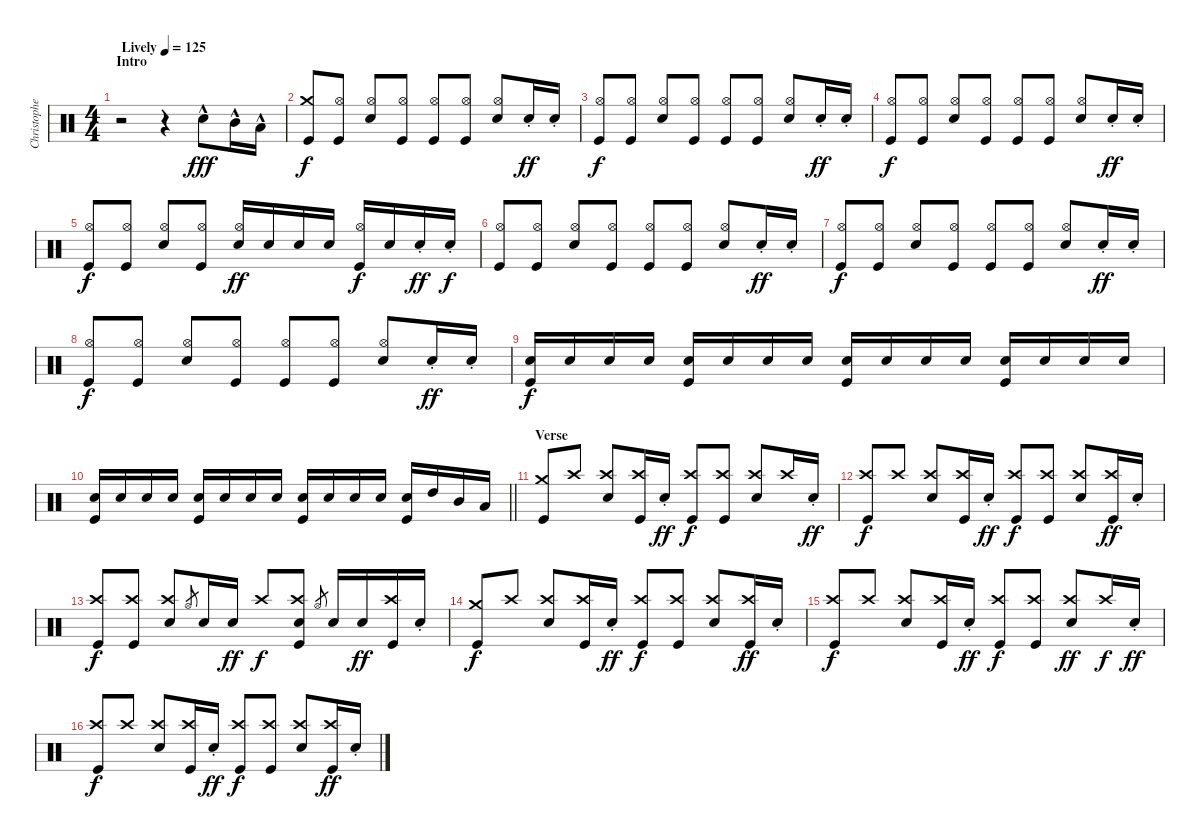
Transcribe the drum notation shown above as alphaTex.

\track ("Christopher - Drums" "Christophe") {instrument percussion}
\staff {score}
\articulation defaults
\ts (4 4)
\section ("" "Intro")
\tempo (125 "Lively")
\clef neutral
\ks c
r.2{dy fff beam Up} r.4 "Electric Snare (hit)"{hac}.8{beam Down} "Mid Tom (hit)"{hac}.16{beam Down} "Low Floor Tom (hit)"{hac}.16{beam Down} |
("Crash medium (hit)" "Kick (hit)").8{dy f beam Up} ("Hi-Hat (open)" "Kick (hit)").8{beam Up} ("Hi-Hat (open)" "Electric Snare (hit)").8{beam Up} ("Hi-Hat (open)" "Kick (hit)").8{beam Up} ("Hi-Hat (open)" "Kick (hit)").8{beam Up} ("Hi-Hat (open)" "Kick (hit)").8{beam Up} ("Hi-Hat (open)" "Electric Snare (hit)").8{beam Up} "Electric Snare (hit)"{st}.16{dy ff beam Up} "Electric Snare (hit)"{st}.16{beam Up} |
("Hi-Hat (open)" "Kick (hit)").8{dy f beam Up} ("Hi-Hat (open)" "Kick (hit)").8{beam Up} ("Hi-Hat (open)" "Electric Snare (hit)").8{beam Up} ("Hi-Hat (open)" "Kick (hit)").8{beam Up} ("Hi-Hat (open)" "Kick (hit)").8{beam Up} ("Hi-Hat (open)" "Kick (hit)").8{beam Up} ("Hi-Hat (open)" "Electric Snare (hit)").8{beam Up} "Electric Snare (hit)"{st}.16{dy ff beam Up} "Electric Snare (hit)"{st}.16{beam Up} |
("Hi-Hat (open)" "Kick (hit)").8{dy f beam Up} ("Hi-Hat (open)" "Kick (hit)").8{beam Up} ("Hi-Hat (open)" "Electric Snare (hit)").8{beam Up} ("Hi-Hat (open)" "Kick (hit)").8{beam Up} ("Hi-Hat (open)" "Kick (hit)").8{beam Up} ("Hi-Hat (open)" "Kick (hit)").8{beam Up} ("Hi-Hat (open)" "Electric Snare (hit)").8{beam Up} "Electric Snare (hit)"{st}.16{dy ff beam Up} "Electric Snare (hit)"{st}.16{beam Up} |
("Hi-Hat (open)" "Kick (hit)").8{dy f beam Up} ("Hi-Hat (open)" "Kick (hit)").8{beam Up} ("Hi-Hat (open)" "Electric Snare (hit)").8{beam Up} ("Hi-Hat (open)" "Kick (hit)").8{beam Up} ("Hi-Hat (open)" "Electric Snare (hit)").16{dy ff beam Up} "Electric Snare (hit)".16{beam Up} "Electric Snare (hit)".16{beam Up} "Electric Snare (hit)".16{beam Up} ("Hi-Hat (open)" "Kick (hit)").16{dy f beam Up} "Electric Snare (hit)".16{beam Up} "Electric Snare (hit)"{st}.16{dy ff beam Up} "Electric Snare (hit)"{st}.16{dy f} |
("Hi-Hat (open)" "Kick (hit)").8{beam Up} ("Hi-Hat (open)" "Kick (hit)").8{beam Up} ("Hi-Hat (open)" "Electric Snare (hit)").8{beam Up} ("Hi-Hat (open)" "Kick (hit)").8{beam Up} ("Hi-Hat (open)" "Kick (hit)").8{beam Up} ("Hi-Hat (open)" "Kick (hit)").8{beam Up} ("Hi-Hat (open)" "Electric Snare (hit)").8{beam Up} "Electric Snare (hit)"{st}.16{dy ff beam Up} "Electric Snare (hit)"{st}.16{beam Up} |
("Hi-Hat (open)" "Kick (hit)").8{dy f beam Up} ("Hi-Hat (open)" "Kick (hit)").8{beam Up} ("Hi-Hat (open)" "Electric Snare (hit)").8{beam Up} ("Hi-Hat (open)" "Kick (hit)").8{beam Up} ("Hi-Hat (open)" "Kick (hit)").8{beam Up} ("Hi-Hat (open)" "Kick (hit)").8{beam Up} ("Hi-Hat (open)" "Electric Snare (hit)").8{beam Up} "Electric Snare (hit)"{st}.16{dy ff beam Up} "Electric Snare (hit)"{st}.16{beam Up} |
("Hi-Hat (open)" "Kick (hit)").8{dy f beam Up} ("Hi-Hat (open)" "Kick (hit)").8{beam Up} ("Hi-Hat (open)" "Electric Snare (hit)").8{beam Up} ("Hi-Hat (open)" "Kick (hit)").8{beam Up} ("Hi-Hat (open)" "Kick (hit)").8{beam Up} ("Hi-Hat (open)" "Kick (hit)").8{beam Up} ("Hi-Hat (open)" "Electric Snare (hit)").8{beam Up} "Electric Snare (hit)"{st}.16{dy ff beam Up} "Electric Snare (hit)"{st}.16{beam Up} |
("Electric Snare (hit)" "Kick (hit)").16{dy f beam Up} "Electric Snare (hit)".16{beam Up} "Electric Snare (hit)".16{beam Up} "Electric Snare (hit)".16{beam Up} ("Electric Snare (hit)" "Kick (hit)").16{beam Up} "Electric Snare (hit)".16{beam Up} "Electric Snare (hit)".16{beam Up} "Electric Snare (hit)".16{beam Up} ("Electric Snare (hit)" "Kick (hit)").16{beam Up} "Electric Snare (hit)".16{beam Up} "Electric Snare (hit)".16{beam Up} "Electric Snare (hit)".16{beam Up} ("Electric Snare (hit)" "Kick (hit)").16{beam Up} "Electric Snare (hit)".16{beam Up} "Electric Snare (hit)".16{beam Up} "Electric Snare (hit)".16{beam Up} |
\barLineRight lightlight
("Electric Snare (hit)" "Kick (hit)").16{beam Up} "Electric Snare (hit)".16{beam Up} "Electric Snare (hit)".16{beam Up} "Electric Snare (hit)".16{beam Up} ("Electric Snare (hit)" "Kick (hit)").16{beam Up} "Electric Snare (hit)".16{beam Up} "Electric Snare (hit)".16{beam Up} "Electric Snare (hit)".16{beam Up} ("Electric Snare (hit)" "Kick (hit)").16{beam Up} "Electric Snare (hit)".16{beam Up} "Electric Snare (hit)".16{beam Up} "Electric Snare (hit)".16{beam Up} ("Electric Snare (hit)" "Kick (hit)").16{beam Up} "High Tom (hit)".16{beam Up} "Mid Tom (hit)".16{beam Up} "Low Floor Tom (hit)".16{beam Up} |
\section ("" "Verse")
("Crash medium (hit)" "Kick (hit)").8{beam Up} "Crash high (hit)".8{beam Up} ("Crash high (hit)" "Electric Snare (hit)").8{beam Up} ("Crash high (hit)" "Kick (hit)").16{beam Up} "Electric Snare (hit)"{st}.16{dy ff beam Up} ("Crash high (hit)" "Kick (hit)").8{dy f beam Up} ("Crash high (hit)" "Kick (hit)").8{beam Up} ("Crash high (hit)" "Electric Snare (hit)").8{beam Up} "Crash high (hit)".16{beam Up} "Electric Snare (hit)"{st}.16{dy ff beam Up} |
("Crash high (hit)" "Kick (hit)").8{dy f beam Up} "Crash high (hit)".8{beam Up} ("Crash high (hit)" "Electric Snare (hit)").8{beam Up} ("Crash high (hit)" "Kick (hit)").16{beam Up} "Electric Snare (hit)"{st}.16{dy ff beam Up} ("Crash high (hit)" "Kick (hit)").8{dy f beam Up} ("Crash high (hit)" "Kick (hit)").8{beam Up} ("Crash high (hit)" "Electric Snare (hit)").8{beam Up} ("Crash high (hit)" "Kick (hit)").16{dy ff beam Up} "Electric Snare (hit)"{st}.16{beam Up} |
("Crash high (hit)" "Kick (hit)").8{dy f beam Up} ("Crash high (hit)" "Kick (hit)").8{beam Up} ("Crash high (hit)" "Electric Snare (hit)").8{beam Up} "Hi-Hat (open)".8{gr} "Electric Snare (hit)".16{beam Up} "Electric Snare (hit)".16{dy ff beam Up} "Crash high (hit)".8{dy f beam Up} ("Crash high (hit)" "Electric Snare (hit)" "Kick (hit)").8{beam Up} "Hi-Hat (open)".8{gr} "Electric Snare (hit)".16{beam Up} "Electric Snare (hit)".16{dy ff beam Up} ("Crash high (hit)" "Kick (hit)").16{beam Up} "Electric Snare (hit)"{st}.16{beam Up} |
("Crash medium (hit)" "Kick (hit)").8{dy f beam Up} "Crash high (hit)".8{beam Up} ("Crash high (hit)" "Electric Snare (hit)").8{beam Up} ("Crash high (hit)" "Kick (hit)").16{beam Up} "Electric Snare (hit)"{st}.16{dy ff beam Up} ("Crash high (hit)" "Kick (hit)").8{dy f beam Up} ("Crash high (hit)" "Kick (hit)").8{beam Up} ("Crash high (hit)" "Electric Snare (hit)").8{beam Up} ("Crash high (hit)" "Kick (hit)").16{dy ff beam Up} "Electric Snare (hit)"{st}.16{beam Up} |
("Crash high (hit)" "Kick (hit)").8{dy f beam Up} "Crash high (hit)".8{beam Up} ("Crash high (hit)" "Electric Snare (hit)").8{beam Up} ("Crash high (hit)" "Kick (hit)").16{beam Up} "Electric Snare (hit)"{st}.16{dy ff beam Up} ("Crash high (hit)" "Kick (hit)").8{dy f beam Up} ("Crash high (hit)" "Kick (hit)").8{beam Up} ("Crash high (hit)" "Electric Snare (hit)").8{dy ff beam Up} "Crash high (hit)".16{dy f beam Up} "Electric Snare (hit)"{st}.16{dy ff beam Up} |
("Crash high (hit)" "Kick (hit)").8{dy f beam Up} "Crash high (hit)".8{beam Up} ("Crash high (hit)" "Electric Snare (hit)").8{beam Up} ("Crash high (hit)" "Kick (hit)").16{beam Up} "Electric Snare (hit)"{st}.16{dy ff beam Up} ("Crash high (hit)" "Kick (hit)").8{dy f beam Up} ("Crash high (hit)" "Kick (hit)").8{beam Up} ("Crash high (hit)" "Electric Snare (hit)").8{beam Up} ("Crash high (hit)" "Kick (hit)").16{dy ff beam Up} "Electric Snare (hit)"{st}.16{beam Up}
